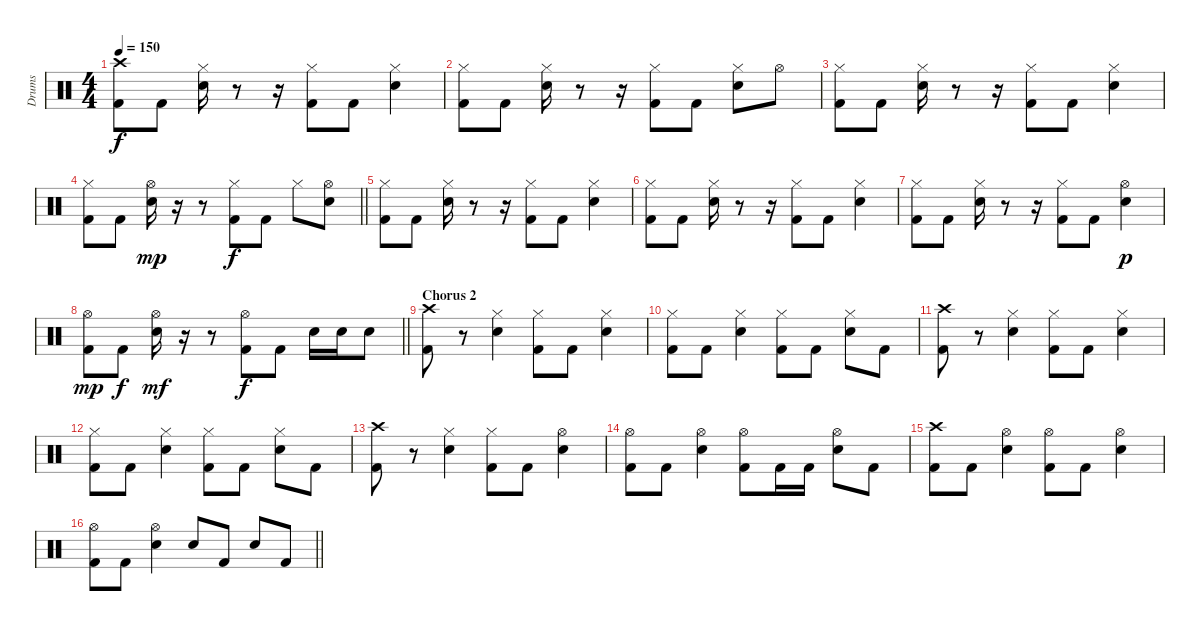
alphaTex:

\track ("Drums" "Drums") {instrument percussion}
\staff {score}
\articulation defaults
\ts (4 4)
\tempo 150
\clef neutral
\ks c
("Crash high (hit)" "Kick (hit) 2").8{dy f} "Kick (hit) 2".8 ("Hi-Hat (closed)" "Electric Snare (hit)").16 r.8 r.16 ("Hi-Hat (closed)" "Kick (hit) 2").8 "Kick (hit) 2".8 ("Hi-Hat (closed)" "Electric Snare (hit)").4 |
("Hi-Hat (closed)" "Kick (hit) 2").8 "Kick (hit) 2".8 ("Hi-Hat (closed)" "Electric Snare (hit)").16 r.8 r.16 ("Hi-Hat (closed)" "Kick (hit) 2").8 "Kick (hit) 2".8 ("Hi-Hat (closed)" "Electric Snare (hit)").8 "Hi-Hat (open)".8 |
("Hi-Hat (closed)" "Kick (hit) 2").8 "Kick (hit) 2".8 ("Hi-Hat (closed)" "Electric Snare (hit)").16 r.8 r.16 ("Hi-Hat (closed)" "Kick (hit) 2").8 "Kick (hit) 2".8 ("Hi-Hat (closed)" "Electric Snare (hit)").4 |
\barLineRight lightlight
("Hi-Hat (closed)" "Kick (hit) 2").8 "Kick (hit) 2".8 ("Hi-Hat (open)" "Electric Snare (hit)").16{dy mp} r.16 r.8 ("Hi-Hat (closed)" "Kick (hit) 2").8{dy f} "Kick (hit) 2".8 "Hi-Hat (closed)".8 ("Hi-Hat (open)" "Electric Snare (hit)").8 |
("Hi-Hat (closed)" "Kick (hit) 2").8 "Kick (hit) 2".8 ("Hi-Hat (closed)" "Electric Snare (hit)").16 r.8 r.16 ("Hi-Hat (closed)" "Kick (hit) 2").8 "Kick (hit) 2".8 ("Hi-Hat (closed)" "Electric Snare (hit)").4 |
("Hi-Hat (closed)" "Kick (hit) 2").8 "Kick (hit) 2".8 ("Hi-Hat (closed)" "Electric Snare (hit)").16 r.8 r.16 ("Hi-Hat (closed)" "Kick (hit) 2").8 "Kick (hit) 2".8 ("Hi-Hat (closed)" "Electric Snare (hit)").4 |
("Hi-Hat (closed)" "Kick (hit) 2").8 "Kick (hit) 2".8 ("Hi-Hat (closed)" "Electric Snare (hit)").16 r.8 r.16 ("Hi-Hat (closed)" "Kick (hit) 2").8 "Kick (hit) 2".8 ("Hi-Hat (open)" "Electric Snare (hit)").4{dy p} |
\barLineRight lightlight
("Hi-Hat (open)" "Kick (hit) 2").8{dy mp} "Kick (hit) 2".8{dy f} ("Hi-Hat (open)" "Electric Snare (hit)").16{dy mf} r.16 r.8 ("Hi-Hat (open)" "Kick (hit) 2").8{dy f} "Kick (hit) 2".8 "Electric Snare (hit)".16 "Electric Snare (hit)".16 "Electric Snare (hit)".8 |
\section ("" "Chorus 2")
("Crash high (hit)" "Kick (hit) 2").8 r.8 ("Hi-Hat (closed)" "Electric Snare (hit)").4 ("Hi-Hat (closed)" "Kick (hit) 2").8 "Kick (hit) 2".8 ("Hi-Hat (closed)" "Electric Snare (hit)").4 |
("Hi-Hat (closed)" "Kick (hit) 2").8 "Kick (hit) 2".8 ("Hi-Hat (closed)" "Electric Snare (hit)").4 ("Hi-Hat (closed)" "Kick (hit) 2").8 "Kick (hit) 2".8 ("Hi-Hat (closed)" "Electric Snare (hit)").8 "Kick (hit) 2".8 |
("Crash high (hit)" "Kick (hit) 2").8 r.8 ("Hi-Hat (closed)" "Electric Snare (hit)").4 ("Hi-Hat (closed)" "Kick (hit) 2").8 "Kick (hit) 2".8 ("Hi-Hat (closed)" "Electric Snare (hit)").4 |
("Hi-Hat (closed)" "Kick (hit) 2").8 "Kick (hit) 2".8 ("Hi-Hat (closed)" "Electric Snare (hit)").4 ("Hi-Hat (closed)" "Kick (hit) 2").8 "Kick (hit) 2".8 ("Hi-Hat (closed)" "Electric Snare (hit)").8 "Kick (hit) 2".8 |
("Crash high (hit)" "Kick (hit) 2").8 r.8 ("Hi-Hat (closed)" "Electric Snare (hit)").4 ("Hi-Hat (closed)" "Kick (hit) 2").8 "Kick (hit) 2".8 ("Hi-Hat (open)" "Electric Snare (hit)").4 |
("Hi-Hat (open)" "Kick (hit) 2").8 "Kick (hit) 2".8 ("Hi-Hat (open)" "Electric Snare (hit)").4 ("Hi-Hat (open)" "Kick (hit) 2").8 "Kick (hit) 2".16 "Kick (hit) 2".16 ("Hi-Hat (open)" "Electric Snare (hit)").8 "Kick (hit) 2".8 |
("Crash high (hit)" "Kick (hit) 2").8 "Kick (hit) 2".8 ("Hi-Hat (open)" "Electric Snare (hit)").4 ("Hi-Hat (open)" "Kick (hit) 2").8 "Kick (hit) 2".8 ("Hi-Hat (open)" "Electric Snare (hit)").4 |
\barLineRight lightlight
("Hi-Hat (open)" "Kick (hit) 2").8 "Kick (hit) 2".8 ("Hi-Hat (open)" "Electric Snare (hit)").4 "Electric Snare (hit)".8 "Kick (hit) 2".8 "Electric Snare (hit)".8 "Kick (hit) 2".8
